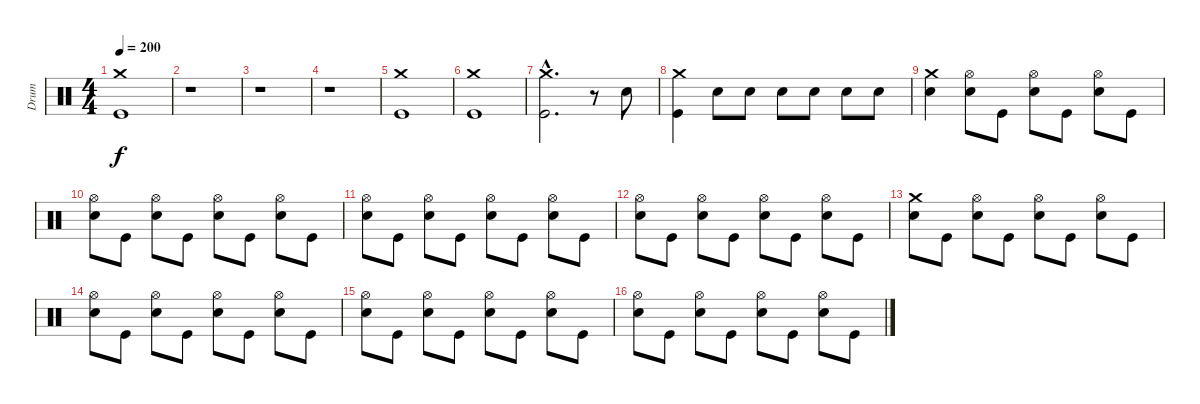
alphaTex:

\track ("Drum" "Drum") {instrument percussion}
\staff {score}
\articulation defaults
\ts (4 4)
\tempo 200
\clef neutral
\ks c
("Kick (hit)" "Crash medium (hit)").1{dy f} |
r.1 |
r.1 |
r.1 |
("Kick (hit)" "Crash medium (hit)").1 |
("Kick (hit)" "Crash medium (hit)").1 |
("Kick (hit)"{hac} "Crash medium (hit)"{hac}).2{d} r.8 "Electric Snare (hit)".8 |
("Kick (hit)" "Crash medium (hit)").4 "Electric Snare (hit)".8 "Electric Snare (hit)".8 "Electric Snare (hit)".8 "Electric Snare (hit)".8 "Electric Snare (hit)".8 "Electric Snare (hit)".8 |
("Electric Snare (hit)" "Crash medium (hit)").4 ("Electric Snare (hit)" "Hi-Hat (open)").8 "Kick (hit)".8 ("Electric Snare (hit)" "Hi-Hat (open)").8 "Kick (hit)".8 ("Electric Snare (hit)" "Hi-Hat (open)").8 "Kick (hit)".8 |
("Electric Snare (hit)" "Hi-Hat (open)").8 "Kick (hit)".8 ("Electric Snare (hit)" "Hi-Hat (open)").8 "Kick (hit)".8 ("Electric Snare (hit)" "Hi-Hat (open)").8 "Kick (hit)".8 ("Electric Snare (hit)" "Hi-Hat (open)").8 "Kick (hit)".8 |
("Electric Snare (hit)" "Hi-Hat (open)").8 "Kick (hit)".8 ("Electric Snare (hit)" "Hi-Hat (open)").8 "Kick (hit)".8 ("Electric Snare (hit)" "Hi-Hat (open)").8 "Kick (hit)".8 ("Electric Snare (hit)" "Hi-Hat (open)").8 "Kick (hit)".8 |
("Electric Snare (hit)" "Hi-Hat (open)").8 "Kick (hit)".8 ("Electric Snare (hit)" "Hi-Hat (open)").8 "Kick (hit)".8 ("Electric Snare (hit)" "Hi-Hat (open)").8 "Kick (hit)".8 ("Electric Snare (hit)" "Hi-Hat (open)").8 "Kick (hit)".8 |
("Electric Snare (hit)" "Crash medium (hit)").8 "Kick (hit)".8 ("Electric Snare (hit)" "Hi-Hat (open)").8 "Kick (hit)".8 ("Electric Snare (hit)" "Hi-Hat (open)").8 "Kick (hit)".8 ("Electric Snare (hit)" "Hi-Hat (open)").8 "Kick (hit)".8 |
("Electric Snare (hit)" "Hi-Hat (open)").8 "Kick (hit)".8 ("Electric Snare (hit)" "Hi-Hat (open)").8 "Kick (hit)".8 ("Electric Snare (hit)" "Hi-Hat (open)").8 "Kick (hit)".8 ("Electric Snare (hit)" "Hi-Hat (open)").8 "Kick (hit)".8 |
("Electric Snare (hit)" "Hi-Hat (open)").8 "Kick (hit)".8 ("Electric Snare (hit)" "Hi-Hat (open)").8 "Kick (hit)".8 ("Electric Snare (hit)" "Hi-Hat (open)").8 "Kick (hit)".8 ("Electric Snare (hit)" "Hi-Hat (open)").8 "Kick (hit)".8 |
("Electric Snare (hit)" "Hi-Hat (open)").8 "Kick (hit)".8 ("Electric Snare (hit)" "Hi-Hat (open)").8 "Kick (hit)".8 ("Electric Snare (hit)" "Hi-Hat (open)").8 "Kick (hit)".8 ("Electric Snare (hit)" "Hi-Hat (open)").8 "Kick (hit)".8
